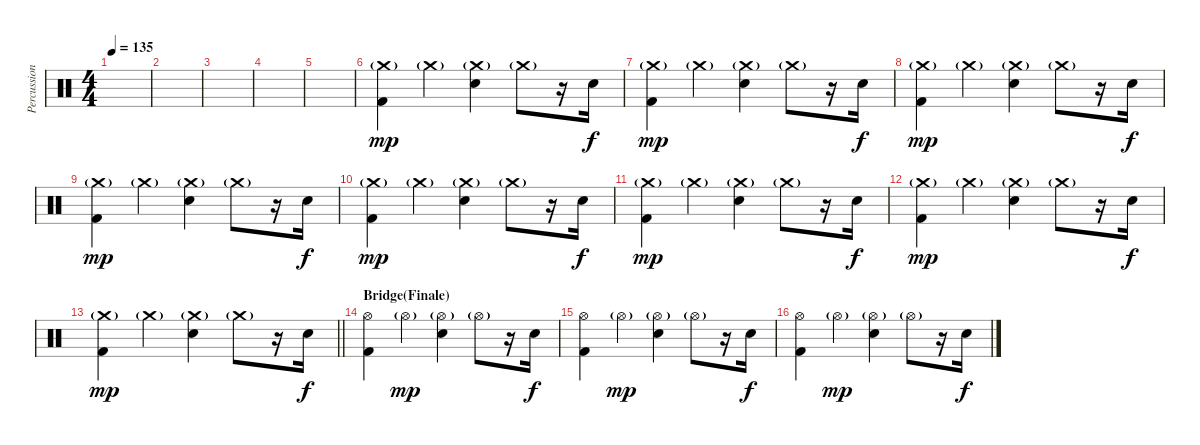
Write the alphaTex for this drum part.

\track ("Percussion" "Percussion") {instrument percussion}
\staff {score}
\articulation defaults
\ts (4 4)
\tempo 135
\clef neutral
\ks c
|
|
|
|
|
("Crash medium (hit)"{g} "Kick (hit) 2").4{dy mp} "Crash medium (hit)"{g}.4 ("Crash medium (hit)"{g} "Electric Snare (hit)").4 "Crash medium (hit)"{g}.8 r.16 "Electric Snare (hit)".16{dy f} |
("Crash medium (hit)"{g} "Kick (hit) 2").4{dy mp} "Crash medium (hit)"{g}.4 ("Crash medium (hit)"{g} "Electric Snare (hit)").4 "Crash medium (hit)"{g}.8 r.16 "Electric Snare (hit)".16{dy f} |
("Crash medium (hit)"{g} "Kick (hit) 2").4{dy mp} "Crash medium (hit)"{g}.4 ("Crash medium (hit)"{g} "Electric Snare (hit)").4 "Crash medium (hit)"{g}.8 r.16 "Electric Snare (hit)".16{dy f} |
("Crash medium (hit)"{g} "Kick (hit) 2").4{dy mp} "Crash medium (hit)"{g}.4 ("Crash medium (hit)"{g} "Electric Snare (hit)").4 "Crash medium (hit)"{g}.8 r.16 "Electric Snare (hit)".16{dy f} |
("Crash medium (hit)"{g} "Kick (hit) 2").4{dy mp} "Crash medium (hit)"{g}.4 ("Crash medium (hit)"{g} "Electric Snare (hit)").4 "Crash medium (hit)"{g}.8 r.16 "Electric Snare (hit)".16{dy f} |
("Crash medium (hit)"{g} "Kick (hit) 2").4{dy mp} "Crash medium (hit)"{g}.4 ("Crash medium (hit)"{g} "Electric Snare (hit)").4 "Crash medium (hit)"{g}.8 r.16 "Electric Snare (hit)".16{dy f} |
("Crash medium (hit)"{g} "Kick (hit) 2").4{dy mp} "Crash medium (hit)"{g}.4 ("Crash medium (hit)"{g} "Electric Snare (hit)").4 "Crash medium (hit)"{g}.8 r.16 "Electric Snare (hit)".16{dy f} |
\barLineRight lightlight
("Crash medium (hit)"{g} "Kick (hit) 2").4{dy mp} "Crash medium (hit)"{g}.4 ("Crash medium (hit)"{g} "Electric Snare (hit)").4 "Crash medium (hit)"{g}.8 r.16 "Electric Snare (hit)".16{dy f} |
\section ("" "Bridge(Finale)")
("Hi-Hat (open)" "Kick (hit) 2").4 "Hi-Hat (open)"{g}.4{dy mp} ("Hi-Hat (open)"{g} "Electric Snare (hit)").4 "Hi-Hat (open)"{g}.8 r.16 "Electric Snare (hit)".16{dy f} |
("Hi-Hat (open)" "Kick (hit) 2").4 "Hi-Hat (open)"{g}.4{dy mp} ("Hi-Hat (open)"{g} "Electric Snare (hit)").4 "Hi-Hat (open)"{g}.8 r.16 "Electric Snare (hit)".16{dy f} |
("Hi-Hat (open)" "Kick (hit) 2").4 "Hi-Hat (open)"{g}.4{dy mp} ("Hi-Hat (open)"{g} "Electric Snare (hit)").4 "Hi-Hat (open)"{g}.8 r.16 "Electric Snare (hit)".16{dy f}
